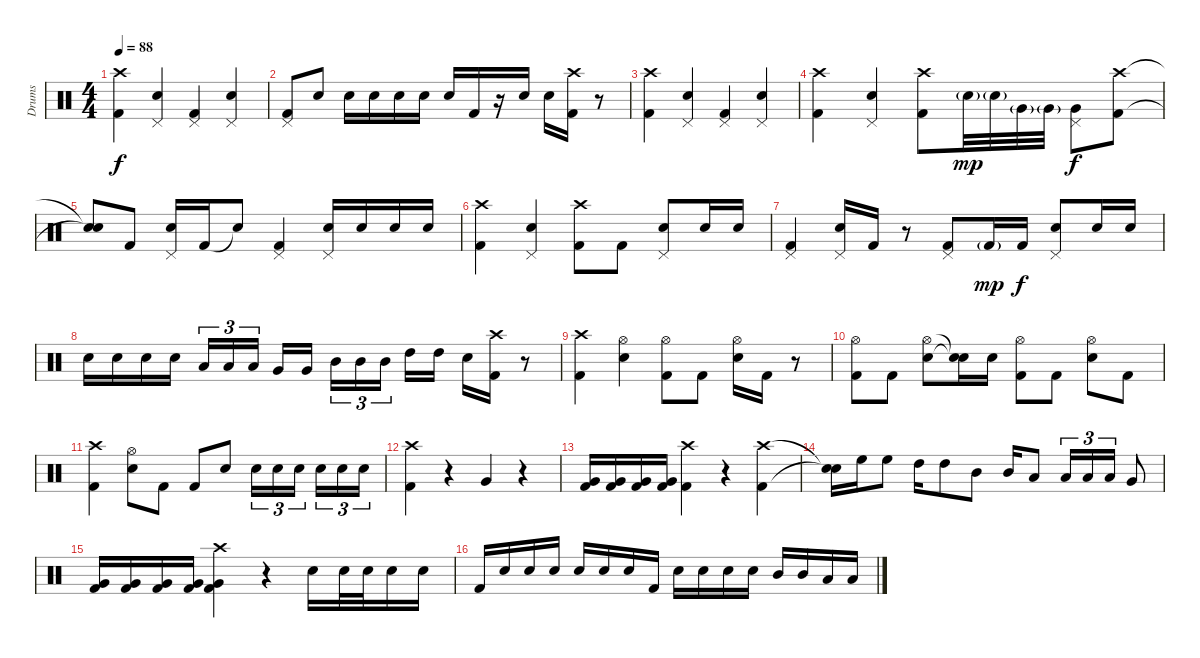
\track ("Drums" "Drums") {instrument percussion}
\staff {score}
\articulation defaults
\ts (4 4)
\tempo 88
\clef neutral
\ks c
("Crash high (hit)" "Kick (hit) 2").4{dy f} ("Pedal Hi-Hat (hit)" "Electric Snare (hit)").4 ("Pedal Hi-Hat (hit)" "Kick (hit) 2").4 ("Pedal Hi-Hat (hit)" "Electric Snare (hit)").4 |
("Pedal Hi-Hat (hit)" "Kick (hit) 2").8 "Electric Snare (hit)".8 "Electric Snare (hit)".16 "Electric Snare (hit)".16 "Electric Snare (hit)".16 "Electric Snare (hit)".16 "Electric Snare (hit)".16 "Kick (hit) 2".16 r.16 "Electric Snare (hit)".16 "Electric Snare (hit)".16 ("Crash high (hit)" "Kick (hit) 2").16 r.8 |
("Crash high (hit)" "Kick (hit) 2").4 ("Pedal Hi-Hat (hit)" "Electric Snare (hit)").4 ("Pedal Hi-Hat (hit)" "Kick (hit) 2").4 ("Pedal Hi-Hat (hit)" "Electric Snare (hit)").4 |
("Crash high (hit)" "Kick (hit) 2").4 ("Pedal Hi-Hat (hit)" "Electric Snare (hit)").4 ("Crash high (hit)" "Kick (hit) 2").8 "Electric Snare (hit)"{g}.32{dy mp} "Electric Snare (hit)"{g}.32 "Very Low Tom (hit)"{g}.32 "Very Low Tom (hit)"{g}.32 ("Pedal Hi-Hat (hit)" "Very Low Tom (hit)").8{dy f} ("Crash high (hit)" "Kick (hit) 2").8 |
("Snare (hit)"{t} "Snare (hit)"{t}).8 "Kick (hit) 2".8 ("Pedal Hi-Hat (hit)" "Electric Snare (hit)").16 "Kick (hit) 2".16 "Snare (hit)"{t}.8 ("Pedal Hi-Hat (hit)" "Kick (hit) 2").4 ("Pedal Hi-Hat (hit)" "Electric Snare (hit)").16 "Electric Snare (hit)".16 "Electric Snare (hit)".16 "Electric Snare (hit)".16 |
("Crash high (hit)" "Kick (hit) 2").4 ("Pedal Hi-Hat (hit)" "Electric Snare (hit)").4 ("Crash high (hit)" "Kick (hit) 2").8 "Kick (hit) 2".8 ("Pedal Hi-Hat (hit)" "Electric Snare (hit)").8 "Electric Snare (hit)".16 "Electric Snare (hit)".16 |
("Pedal Hi-Hat (hit)" "Kick (hit) 2").4 ("Pedal Hi-Hat (hit)" "Electric Snare (hit)").16 "Kick (hit) 2".16 r.8 ("Pedal Hi-Hat (hit)" "Kick (hit) 2").8 "Kick (hit) 2"{g}.16{dy mp} "Kick (hit) 2".16{dy f} ("Pedal Hi-Hat (hit)" "Electric Snare (hit)").8 "Electric Snare (hit)".16 "Electric Snare (hit)".16 |
"Electric Snare (hit)".16 "Electric Snare (hit)".16 "Electric Snare (hit)".16 "Electric Snare (hit)".16 "Low Tom (hit)".16{tu (3 2)} "Low Tom (hit)".16{tu (3 2)} "Low Tom (hit)".16{tu (3 2)} "Very Low Tom (hit)".16 "Very Low Tom (hit)".16 "Mid Tom (hit)".16{tu (3 2)} "Mid Tom (hit)".16{tu (3 2)} "Mid Tom (hit)".16{tu (3 2)} "High Tom (hit)".16 "High Tom (hit)".16 "Electric Snare (hit)".16 ("Crash high (hit)" "Kick (hit) 2").16 r.8 |
("Crash high (hit)" "Kick (hit) 2").4 ("Hi-Hat (open)" "Electric Snare (hit)").4 ("Hi-Hat (open)" "Kick (hit) 2").8 "Kick (hit) 2".8 ("Hi-Hat (open)" "Electric Snare (hit)").16 "Kick (hit) 2".16 r.8 |
("Hi-Hat (open)" "Kick (hit) 2").8 "Kick (hit) 2".8 ("Hi-Hat (open)" "Electric Snare (hit)").8 ("Snare (hit)"{t} "Snare (hit)"{t}).16 "Electric Snare (hit)".16 ("Hi-Hat (open)" "Kick (hit) 2").8 "Kick (hit) 2".8 ("Hi-Hat (open)" "Electric Snare (hit)").8 "Kick (hit) 2".8 |
("Crash high (hit)" "Kick (hit) 2").4 ("Hi-Hat (open)" "Electric Snare (hit)").8 "Kick (hit) 2".8 "Kick (hit) 2".8 "Electric Snare (hit)".8 "Electric Snare (hit)".16{tu (3 2)} "Electric Snare (hit)".16{tu (3 2)} "Electric Snare (hit)".16{tu (3 2)} "Electric Snare (hit)".16{tu (3 2)} "Electric Snare (hit)".16{tu (3 2)} "Electric Snare (hit)".16{tu (3 2)} |
("Crash high (hit)" "Kick (hit) 2").4 r.4 "Very Low Tom (hit)".4 r.4 |
("Very Low Tom (hit)" "Kick (hit) 2").16 ("Very Low Tom (hit)" "Kick (hit) 2").16 ("Very Low Tom (hit)" "Kick (hit) 2").16 ("Very Low Tom (hit)" "Kick (hit) 2").16 ("Crash high (hit)" "Kick (hit) 2").4 r.4 ("Crash high (hit)" "Kick (hit) 2").4 |
("Snare (hit)"{t} "Snare (hit)"{t}).16 "High Floor Tom (hit)".16 "High Floor Tom (hit)".8 "High Tom (hit)".16 "High Tom (hit)".8 "Mid Tom (hit)".8 "Mid Tom (hit)".16 "Low Tom (hit)".8 "Low Tom (hit)".16{tu (3 2)} "Low Tom (hit)".16{tu (3 2)} "Low Tom (hit)".16{tu (3 2)} "Very Low Tom (hit)".8 |
("Very Low Tom (hit)" "Kick (hit) 2").16 ("Very Low Tom (hit)" "Kick (hit) 2").16 ("Very Low Tom (hit)" "Kick (hit) 2").16 ("Very Low Tom (hit)" "Kick (hit) 2").16 ("Crash high (hit)" "Very Low Tom (hit)" "Kick (hit) 2").4 r.4 "Electric Snare (hit)".16 "Electric Snare (hit)".32 "Electric Snare (hit)".32 "Electric Snare (hit)".16 "Electric Snare (hit)".16 |
"Kick (hit) 2".16 "Electric Snare (hit)".16 "Electric Snare (hit)".16 "Electric Snare (hit)".16 "Electric Snare (hit)".16 "Electric Snare (hit)".16 "Electric Snare (hit)".16 "Kick (hit) 2".16 "Electric Snare (hit)".16 "Electric Snare (hit)".16 "Electric Snare (hit)".16 "Electric Snare (hit)".16 "Mid Tom (hit)".16 "Mid Tom (hit)".16 "Low Tom (hit)".16 "Low Tom (hit)".16
